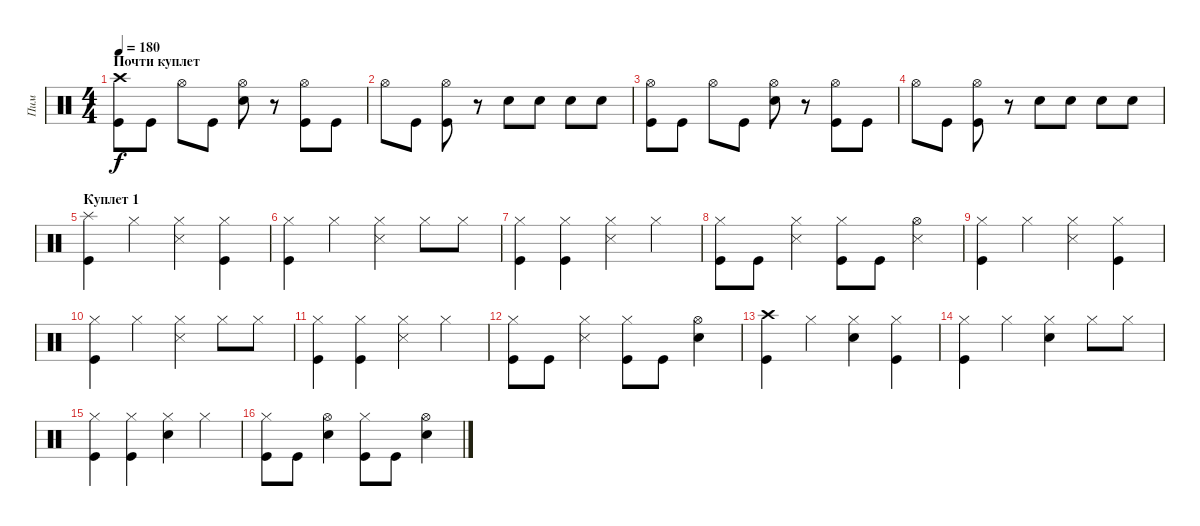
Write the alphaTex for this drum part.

\track ("Пим" "Пим") {instrument percussion}
\staff {score}
\articulation defaults
\ts (4 4)
\section ("" "Почти куплет")
\tempo 180
\clef neutral
\ks c
("Crash high (hit)" "Kick (hit)").8{dy f} "Kick (hit)".8 "Hi-Hat (open)".8 "Kick (hit)".8 ("Hi-Hat (open)" "Snare (hit) 2").8 r.8 ("Hi-Hat (open)" "Kick (hit)").8 "Kick (hit)".8 |
"Hi-Hat (open)".8 "Kick (hit)".8 ("Hi-Hat (open)" "Kick (hit)").8 r.8 "Snare (hit) 2".8 "Snare (hit) 2".8 "Snare (hit) 2".8 "Snare (hit) 2".8 |
("Hi-Hat (open)" "Kick (hit)").8 "Kick (hit)".8 "Hi-Hat (open)".8 "Kick (hit)".8 ("Hi-Hat (open)" "Snare (hit) 2").8 r.8 ("Hi-Hat (open)" "Kick (hit)").8 "Kick (hit)".8 |
"Hi-Hat (open)".8 "Kick (hit)".8 ("Hi-Hat (open)" "Kick (hit)").8 r.8 "Snare (hit) 2".8 "Snare (hit) 2".8 "Snare (hit) 2".8 "Snare (hit) 2".8 |
\section ("" "Куплет 1")
("Splash (hit)" "Kick (hit)").4 "Hi-Hat (closed)".4 ("Hi-Hat (closed)" "Snare (side stick) 3").4 ("Hi-Hat (closed)" "Kick (hit)").4 |
("Hi-Hat (closed)" "Kick (hit)").4 "Hi-Hat (closed)".4 ("Hi-Hat (closed)" "Snare (side stick) 3").4 "Hi-Hat (closed)".8 "Hi-Hat (closed)".8 |
("Hi-Hat (closed)" "Kick (hit)").4 ("Hi-Hat (closed)" "Kick (hit)").4 ("Hi-Hat (closed)" "Snare (side stick) 3").4 "Hi-Hat (closed)".4 |
("Hi-Hat (closed)" "Kick (hit)").8 "Kick (hit)".8 ("Hi-Hat (closed)" "Snare (side stick) 3").4 ("Hi-Hat (closed)" "Kick (hit)").8 "Kick (hit)".8 ("Hi-Hat (open)" "Snare (side stick) 3").4 |
("Hi-Hat (closed)" "Kick (hit)").4 "Hi-Hat (closed)".4 ("Hi-Hat (closed)" "Snare (side stick) 3").4 ("Hi-Hat (closed)" "Kick (hit)").4 |
("Hi-Hat (closed)" "Kick (hit)").4 "Hi-Hat (closed)".4 ("Hi-Hat (closed)" "Snare (side stick) 3").4 "Hi-Hat (closed)".8 "Hi-Hat (closed)".8 |
("Hi-Hat (closed)" "Kick (hit)").4 ("Hi-Hat (closed)" "Kick (hit)").4 ("Hi-Hat (closed)" "Snare (side stick) 3").4 "Hi-Hat (closed)".4 |
("Hi-Hat (closed)" "Kick (hit)").8 "Kick (hit)".8 ("Hi-Hat (closed)" "Snare (side stick) 3").4 ("Hi-Hat (closed)" "Kick (hit)").8 "Kick (hit)".8 ("Hi-Hat (open)" "Snare (hit) 2").4 |
("Crash high (hit)" "Kick (hit)").4 "Hi-Hat (closed)".4 ("Hi-Hat (closed)" "Snare (hit) 2").4 ("Hi-Hat (closed)" "Kick (hit)").4 |
("Hi-Hat (closed)" "Kick (hit)").4 "Hi-Hat (closed)".4 ("Hi-Hat (closed)" "Snare (hit) 2").4 "Hi-Hat (closed)".8 "Hi-Hat (closed)".8 |
("Hi-Hat (closed)" "Kick (hit)").4 ("Hi-Hat (closed)" "Kick (hit)").4 ("Hi-Hat (closed)" "Snare (hit) 2").4 "Hi-Hat (closed)".4 |
("Hi-Hat (closed)" "Kick (hit)").8 "Kick (hit)".8 ("Hi-Hat (open)" "Snare (hit) 2").4 ("Hi-Hat (closed)" "Kick (hit)").8 "Kick (hit)".8 ("Hi-Hat (open)" "Snare (hit) 2").4
